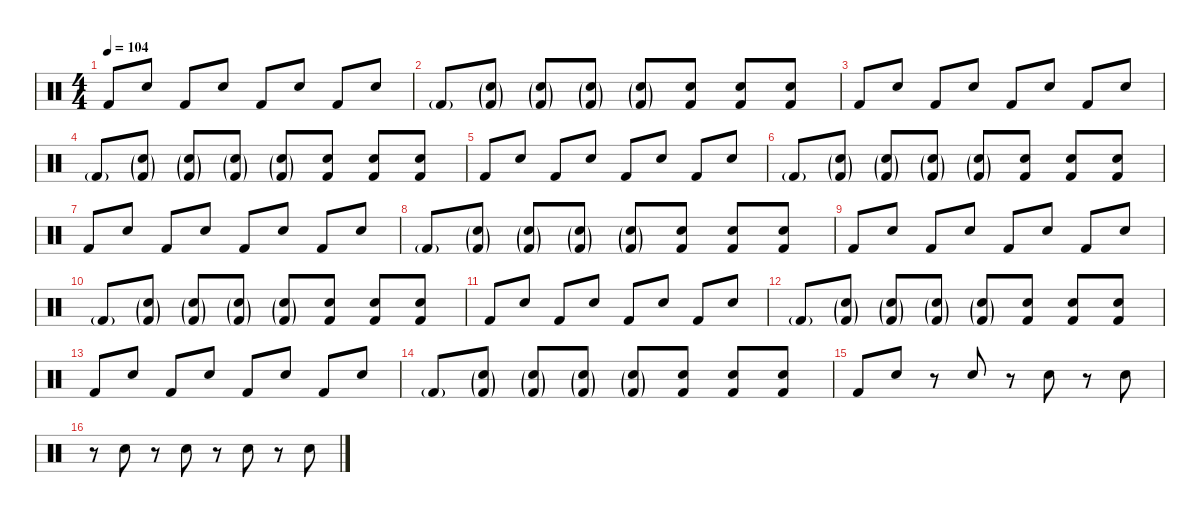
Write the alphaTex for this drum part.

\defaultSystemsLayout 4
\hideDynamics
\bracketExtendMode nobrackets
\singleTrackTrackNamePolicy hidden
\multiTrackTrackNamePolicy hidden
\firstSystemTrackNameMode fullname
\firstSystemTrackNameOrientation horizontal
\otherSystemsTrackNameOrientation horizontal
\track ("Drums" "drm.") {instrument percussion}
\staff {score}
\articulation defaults
\ts (4 4)
\tempo 104
\clef neutral
\ks c "Kick (hit) 2".8{dy f beam Up} "Snare (hit) 2".8{beam Up} "Kick (hit) 2".8{beam Up} "Snare (hit) 2".8{beam Up} "Kick (hit) 2".8{beam Up} "Snare (hit) 2".8{beam Up} "Kick (hit) 2".8{beam Up} "Snare (hit) 2".8{beam Up}
|
"Kick (hit) 2"{g}.8{dy mp beam Up} ("Snare (hit) 2"{g} "Kick (hit) 2"{g}).8{beam Up} ("Snare (hit) 2"{g} "Kick (hit) 2"{g}).8{beam Up} ("Snare (hit) 2"{g} "Kick (hit) 2"{g}).8{dy mf beam Up} ("Snare (hit) 2"{g} "Kick (hit) 2"{g}).8{beam Up} ("Snare (hit) 2" "Kick (hit) 2").8{beam Up} ("Snare (hit) 2" "Kick (hit) 2").8{beam Up} ("Snare (hit) 2" "Kick (hit) 2").8{beam Up} |
"Kick (hit) 2".8{dy f beam Up} "Snare (hit) 2".8{beam Up} "Kick (hit) 2".8{beam Up} "Snare (hit) 2".8{beam Up} "Kick (hit) 2".8{beam Up} "Snare (hit) 2".8{beam Up} "Kick (hit) 2".8{beam Up} "Snare (hit) 2".8{beam Up} |
"Kick (hit) 2"{g}.8{dy mp beam Up} ("Snare (hit) 2"{g} "Kick (hit) 2"{g}).8{beam Up} ("Snare (hit) 2"{g} "Kick (hit) 2"{g}).8{beam Up} ("Snare (hit) 2"{g} "Kick (hit) 2"{g}).8{dy mf beam Up} ("Snare (hit) 2"{g} "Kick (hit) 2"{g}).8{beam Up} ("Snare (hit) 2" "Kick (hit) 2").8{beam Up} ("Snare (hit) 2" "Kick (hit) 2").8{beam Up} ("Snare (hit) 2" "Kick (hit) 2").8{beam Up} |
"Kick (hit) 2".8{dy f beam Up} "Snare (hit) 2".8{beam Up} "Kick (hit) 2".8{beam Up} "Snare (hit) 2".8{beam Up} "Kick (hit) 2".8{beam Up} "Snare (hit) 2".8{beam Up} "Kick (hit) 2".8{beam Up} "Snare (hit) 2".8{beam Up} |
"Kick (hit) 2"{g}.8{dy mp beam Up} ("Snare (hit) 2"{g} "Kick (hit) 2"{g}).8{beam Up} ("Snare (hit) 2"{g} "Kick (hit) 2"{g}).8{beam Up} ("Snare (hit) 2"{g} "Kick (hit) 2"{g}).8{dy mf beam Up} ("Snare (hit) 2"{g} "Kick (hit) 2"{g}).8{beam Up} ("Snare (hit) 2" "Kick (hit) 2").8{beam Up} ("Snare (hit) 2" "Kick (hit) 2").8{beam Up} ("Snare (hit) 2" "Kick (hit) 2").8{beam Up} |
"Kick (hit) 2".8{dy f beam Up} "Snare (hit) 2".8{beam Up} "Kick (hit) 2".8{beam Up} "Snare (hit) 2".8{beam Up} "Kick (hit) 2".8{beam Up} "Snare (hit) 2".8{beam Up} "Kick (hit) 2".8{beam Up} "Snare (hit) 2".8{beam Up} |
"Kick (hit) 2"{g}.8{dy mp beam Up} ("Snare (hit) 2"{g} "Kick (hit) 2"{g}).8{beam Up} ("Snare (hit) 2"{g} "Kick (hit) 2"{g}).8{beam Up} ("Snare (hit) 2"{g} "Kick (hit) 2"{g}).8{dy mf beam Up} ("Snare (hit) 2"{g} "Kick (hit) 2"{g}).8{beam Up} ("Snare (hit) 2" "Kick (hit) 2").8{beam Up} ("Snare (hit) 2" "Kick (hit) 2").8{beam Up} ("Snare (hit) 2" "Kick (hit) 2").8{beam Up} |
"Kick (hit) 2".8{dy f beam Up} "Snare (hit) 2".8{beam Up} "Kick (hit) 2".8{beam Up} "Snare (hit) 2".8{beam Up} "Kick (hit) 2".8{beam Up} "Snare (hit) 2".8{beam Up} "Kick (hit) 2".8{beam Up} "Snare (hit) 2".8{beam Up} |
"Kick (hit) 2"{g}.8{dy mp beam Up} ("Snare (hit) 2"{g} "Kick (hit) 2"{g}).8{beam Up} ("Snare (hit) 2"{g} "Kick (hit) 2"{g}).8{beam Up} ("Snare (hit) 2"{g} "Kick (hit) 2"{g}).8{dy mf beam Up} ("Snare (hit) 2"{g} "Kick (hit) 2"{g}).8{beam Up} ("Snare (hit) 2" "Kick (hit) 2").8{beam Up} ("Snare (hit) 2" "Kick (hit) 2").8{beam Up} ("Snare (hit) 2" "Kick (hit) 2").8{beam Up} |
"Kick (hit) 2".8{dy f beam Up} "Snare (hit) 2".8{beam Up} "Kick (hit) 2".8{beam Up} "Snare (hit) 2".8{beam Up} "Kick (hit) 2".8{beam Up} "Snare (hit) 2".8{beam Up} "Kick (hit) 2".8{beam Up} "Snare (hit) 2".8{beam Up} |
"Kick (hit) 2"{g}.8{dy mp beam Up} ("Snare (hit) 2"{g} "Kick (hit) 2"{g}).8{beam Up} ("Snare (hit) 2"{g} "Kick (hit) 2"{g}).8{beam Up} ("Snare (hit) 2"{g} "Kick (hit) 2"{g}).8{dy mf beam Up} ("Snare (hit) 2"{g} "Kick (hit) 2"{g}).8{beam Up} ("Snare (hit) 2" "Kick (hit) 2").8{beam Up} ("Snare (hit) 2" "Kick (hit) 2").8{beam Up} ("Snare (hit) 2" "Kick (hit) 2").8{beam Up} |
"Kick (hit) 2".8{dy f beam Up} "Snare (hit) 2".8{beam Up} "Kick (hit) 2".8{beam Up} "Snare (hit) 2".8{beam Up} "Kick (hit) 2".8{beam Up} "Snare (hit) 2".8{beam Up} "Kick (hit) 2".8{beam Up} "Snare (hit) 2".8{beam Up} |
"Kick (hit) 2"{g}.8{dy mp beam Up} ("Snare (hit) 2"{g} "Kick (hit) 2"{g}).8{beam Up} ("Snare (hit) 2"{g} "Kick (hit) 2"{g}).8{beam Up} ("Snare (hit) 2"{g} "Kick (hit) 2"{g}).8{dy mf beam Up} ("Snare (hit) 2"{g} "Kick (hit) 2"{g}).8{beam Up} ("Snare (hit) 2" "Kick (hit) 2").8{beam Up} ("Snare (hit) 2" "Kick (hit) 2").8{beam Up} ("Snare (hit) 2" "Kick (hit) 2").8{beam Up} |
"Kick (hit) 2".8{dy f beam Up} "Snare (hit) 2".8{beam Up} r.8{beam Up} "Snare (hit) 2".8{beam Down} r.8{beam Down} "Snare (hit) 2".8{beam Down} r.8{beam Down} "Snare (hit) 2".8{beam Down} |
r.8{beam Down} "Snare (hit) 2".8{beam Down} r.8{beam Down} "Snare (hit) 2".8{beam Down} r.8{beam Down} "Snare (hit) 2".8{beam Down} r.8{beam Down} "Snare (hit) 2".8{beam Down}
